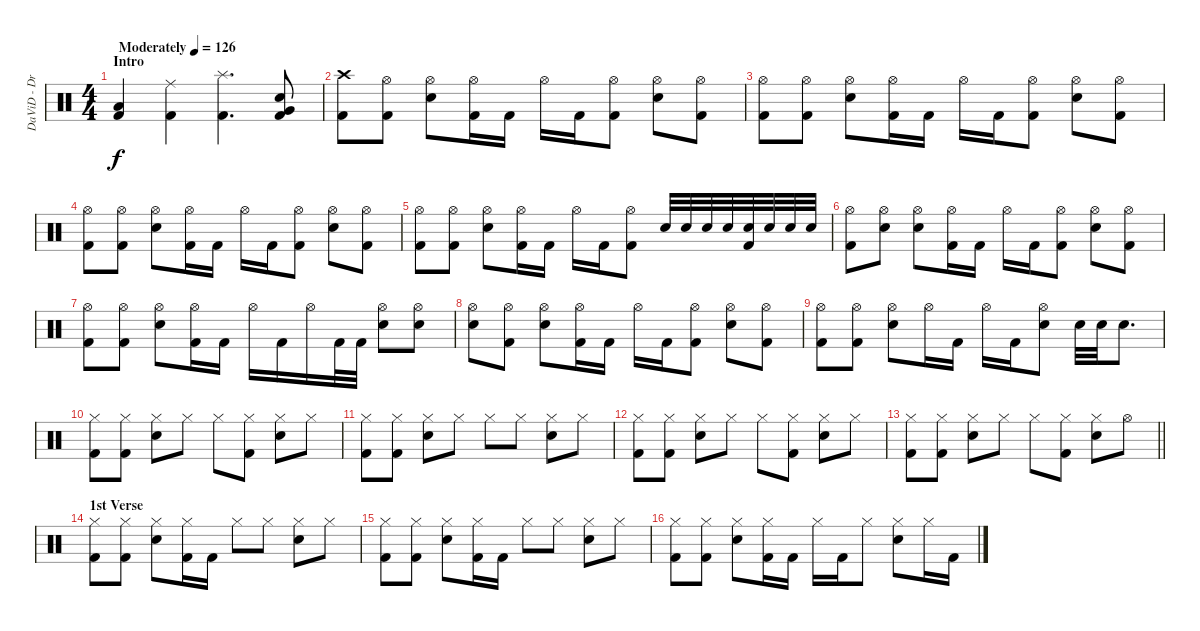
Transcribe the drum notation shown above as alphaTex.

\track ("DaViD - DruMzZ" "DaViD - Dr") {instrument percussion}
\staff {score}
\articulation defaults
\ts (4 4)
\section ("" "Intro")
\tempo (126 "Moderately")
\clef neutral
\ks c
("Low Floor Tom (hit)" "Kick (hit) 2").4{dy f} ("Ride (middle)" "Kick (hit) 2").4 ("Splash (hit)" "Kick (hit) 2").4{d} ("Snare (hit) 2" "Very Low Tom (hit)" "Kick (hit) 2").8 |
("Crash high (hit)" "Kick (hit) 2").8 ("Hi-Hat (open)" "Kick (hit) 2").8 ("Hi-Hat (open)" "Snare (hit) 2").8 ("Hi-Hat (open)" "Kick (hit) 2").16 "Kick (hit) 2".16 "Hi-Hat (open)".16 "Kick (hit) 2".16 ("Hi-Hat (open)" "Kick (hit) 2").8 ("Hi-Hat (open)" "Snare (hit) 2").8 ("Hi-Hat (open)" "Kick (hit) 2").8 |
("Hi-Hat (open)" "Kick (hit) 2").8 ("Hi-Hat (open)" "Kick (hit) 2").8 ("Hi-Hat (open)" "Snare (hit) 2").8 ("Hi-Hat (open)" "Kick (hit) 2").16 "Kick (hit) 2".16 "Hi-Hat (open)".16 "Kick (hit) 2".16 ("Hi-Hat (open)" "Kick (hit) 2").8 ("Hi-Hat (open)" "Snare (hit) 2").8 ("Hi-Hat (open)" "Kick (hit) 2").8 |
("Hi-Hat (open)" "Kick (hit) 2").8 ("Hi-Hat (open)" "Kick (hit) 2").8 ("Hi-Hat (open)" "Snare (hit) 2").8 ("Hi-Hat (open)" "Kick (hit) 2").16 "Kick (hit) 2".16 "Hi-Hat (open)".16 "Kick (hit) 2".16 ("Hi-Hat (open)" "Kick (hit) 2").8 ("Hi-Hat (open)" "Snare (hit) 2").8 ("Hi-Hat (open)" "Kick (hit) 2").8 |
("Hi-Hat (open)" "Kick (hit) 2").8 ("Hi-Hat (open)" "Kick (hit) 2").8 ("Hi-Hat (open)" "Snare (hit) 2").8 ("Hi-Hat (open)" "Kick (hit) 2").16 "Kick (hit) 2".16 "Hi-Hat (open)".16 "Kick (hit) 2".16 ("Hi-Hat (open)" "Kick (hit) 2").8 "Snare (hit) 2".32 "Snare (hit) 2".32 "Snare (hit) 2".32 "Snare (hit) 2".32 ("Snare (hit) 2" "Kick (hit) 2").32 "Snare (hit) 2".32 "Snare (hit) 2".32 "Snare (hit) 2".32 |
("Hi-Hat (open)" "Kick (hit) 2").8 ("Hi-Hat (open)" "Snare (hit) 2").8 ("Hi-Hat (open)" "Snare (hit) 2").8 ("Hi-Hat (open)" "Kick (hit) 2").16 "Kick (hit) 2".16 "Hi-Hat (open)".16 "Kick (hit) 2".16 ("Hi-Hat (open)" "Kick (hit) 2").8 ("Hi-Hat (open)" "Snare (hit) 2").8 ("Hi-Hat (open)" "Kick (hit) 2").8 |
("Hi-Hat (open)" "Kick (hit) 2").8 ("Hi-Hat (open)" "Kick (hit) 2").8 ("Hi-Hat (open)" "Snare (hit) 2").8 ("Hi-Hat (open)" "Kick (hit) 2").16 "Kick (hit) 2".16 "Hi-Hat (open)".16 "Kick (hit) 2".16 "Hi-Hat (open)".16 "Kick (hit) 2".32 "Kick (hit) 2".32 ("Hi-Hat (open)" "Snare (hit) 2").8 ("Hi-Hat (open)" "Snare (hit) 2").8 |
("Hi-Hat (open)" "Snare (hit) 2").8 ("Hi-Hat (open)" "Kick (hit) 2").8 ("Hi-Hat (open)" "Snare (hit) 2").8 ("Hi-Hat (open)" "Kick (hit) 2").16 "Kick (hit) 2".16 "Hi-Hat (open)".16 "Kick (hit) 2".16 ("Hi-Hat (open)" "Kick (hit) 2").8 ("Hi-Hat (open)" "Snare (hit) 2").8 ("Hi-Hat (open)" "Kick (hit) 2").8 |
("Hi-Hat (open)" "Kick (hit) 2").8 ("Hi-Hat (open)" "Kick (hit) 2").8 ("Hi-Hat (open)" "Snare (hit) 2").8 "Hi-Hat (open)".16 "Kick (hit) 2".16 "Hi-Hat (open)".16 "Kick (hit) 2".16 ("Hi-Hat (open)" "Snare (hit) 2").8 "Snare (hit) 2".32 "Snare (hit) 2".32 "Snare (hit) 2".8{d} |
("Hi-Hat (closed)" "Kick (hit) 2").8 ("Hi-Hat (closed)" "Kick (hit) 2").8 ("Hi-Hat (closed)" "Snare (hit) 2").8 "Hi-Hat (closed)".8 "Hi-Hat (closed)".8 ("Hi-Hat (closed)" "Kick (hit) 2").8 ("Hi-Hat (closed)" "Snare (hit) 2").8 "Hi-Hat (closed)".8 |
("Hi-Hat (closed)" "Kick (hit) 2").8 ("Hi-Hat (closed)" "Kick (hit) 2").8 ("Hi-Hat (closed)" "Snare (hit) 2").8 "Hi-Hat (closed)".8 "Hi-Hat (closed)".8 "Hi-Hat (closed)".8 ("Hi-Hat (closed)" "Snare (hit) 2").8 "Hi-Hat (closed)".8 |
("Hi-Hat (closed)" "Kick (hit) 2").8 ("Hi-Hat (closed)" "Kick (hit) 2").8 ("Hi-Hat (closed)" "Snare (hit) 2").8 "Hi-Hat (closed)".8 "Hi-Hat (closed)".8 ("Hi-Hat (closed)" "Kick (hit) 2").8 ("Hi-Hat (closed)" "Snare (hit) 2").8 "Hi-Hat (closed)".8 |
\barLineRight lightlight
("Hi-Hat (closed)" "Kick (hit) 2").8 ("Hi-Hat (closed)" "Kick (hit) 2").8 ("Hi-Hat (closed)" "Snare (hit) 2").8 "Hi-Hat (closed)".8 "Hi-Hat (closed)".8 ("Hi-Hat (closed)" "Kick (hit) 2").8 ("Hi-Hat (closed)" "Snare (hit) 2").8 "Hi-Hat (open)".8 |
\section ("" "1st Verse")
("Hi-Hat (closed)" "Kick (hit) 2").8 ("Hi-Hat (closed)" "Kick (hit) 2").8 ("Hi-Hat (closed)" "Snare (hit) 2").8 ("Hi-Hat (closed)" "Kick (hit) 2").16 "Kick (hit) 2".16 "Hi-Hat (closed)".8 "Hi-Hat (closed)".8 ("Hi-Hat (closed)" "Snare (hit) 2").8 "Hi-Hat (closed)".8 |
("Hi-Hat (closed)" "Kick (hit) 2").8 ("Hi-Hat (closed)" "Kick (hit) 2").8 ("Hi-Hat (closed)" "Snare (hit) 2").8 ("Hi-Hat (closed)" "Kick (hit) 2").16 "Kick (hit) 2".16 "Hi-Hat (closed)".8 "Hi-Hat (closed)".8 ("Hi-Hat (closed)" "Snare (hit) 2").8 "Hi-Hat (closed)".8 |
("Hi-Hat (closed)" "Kick (hit) 2").8 ("Hi-Hat (closed)" "Kick (hit) 2").8 ("Hi-Hat (closed)" "Snare (hit) 2").8 ("Hi-Hat (closed)" "Kick (hit) 2").16 "Kick (hit) 2".16 "Hi-Hat (closed)".16 "Kick (hit) 2".16 "Hi-Hat (closed)".8 ("Hi-Hat (closed)" "Snare (hit) 2").8 "Hi-Hat (closed)".16 "Kick (hit) 2".16
